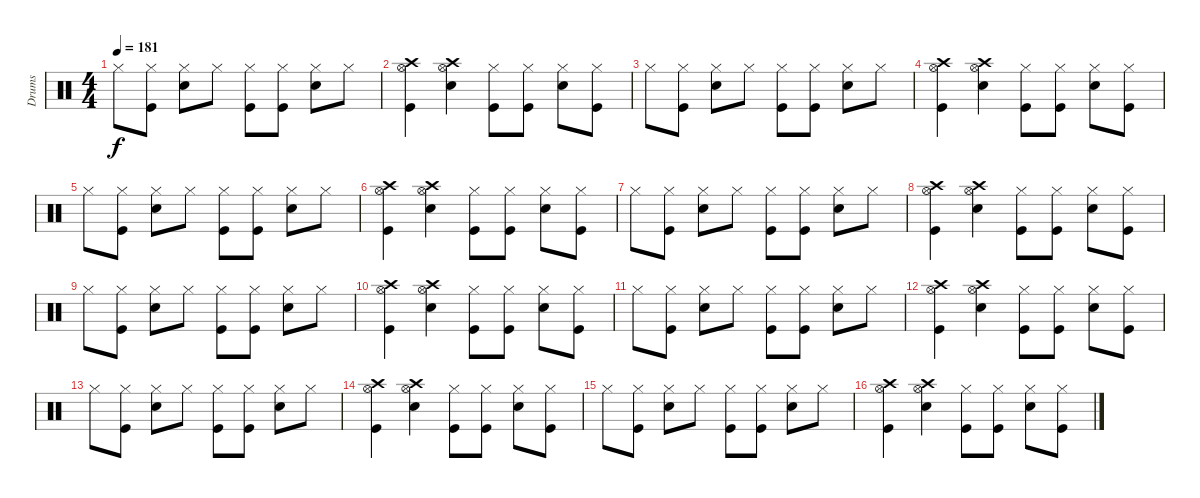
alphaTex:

\track ("Drums" "Drums") {instrument percussion}
\staff {score}
\articulation defaults
\ts (4 4)
\tempo 181
\clef neutral
\ks c "Hi-Hat (closed)".8{dy f}
("Hi-Hat (closed)" "Kick (hit)").8 ("Hi-Hat (closed)" "Snare (hit) 2").8 "Hi-Hat (closed)".8 ("Hi-Hat (closed)" "Kick (hit)").8 ("Hi-Hat (closed)" "Kick (hit)").8 ("Hi-Hat (closed)" "Snare (hit) 2").8 "Hi-Hat (closed)".8 |
("Crash high (hit)" "Hi-Hat (open)" "Kick (hit)").4 ("Crash high (hit)" "Hi-Hat (open)" "Snare (hit) 2").4 ("Hi-Hat (closed)" "Kick (hit)").8 ("Hi-Hat (closed)" "Kick (hit)").8 ("Hi-Hat (closed)" "Snare (hit) 2").8 ("Hi-Hat (closed)" "Kick (hit)").8 |
"Hi-Hat (closed)".8 ("Hi-Hat (closed)" "Kick (hit)").8 ("Hi-Hat (closed)" "Snare (hit) 2").8 "Hi-Hat (closed)".8 ("Hi-Hat (closed)" "Kick (hit)").8 ("Hi-Hat (closed)" "Kick (hit)").8 ("Hi-Hat (closed)" "Snare (hit) 2").8 "Hi-Hat (closed)".8 |
("Crash high (hit)" "Hi-Hat (open)" "Kick (hit)").4 ("Crash high (hit)" "Hi-Hat (open)" "Snare (hit) 2").4 ("Hi-Hat (closed)" "Kick (hit)").8 ("Hi-Hat (closed)" "Kick (hit)").8 ("Hi-Hat (closed)" "Snare (hit) 2").8 ("Hi-Hat (closed)" "Kick (hit)").8 |
"Hi-Hat (closed)".8 ("Hi-Hat (closed)" "Kick (hit)").8 ("Hi-Hat (closed)" "Snare (hit) 2").8 "Hi-Hat (closed)".8 ("Hi-Hat (closed)" "Kick (hit)").8 ("Hi-Hat (closed)" "Kick (hit)").8 ("Hi-Hat (closed)" "Snare (hit) 2").8 "Hi-Hat (closed)".8 |
("Crash high (hit)" "Hi-Hat (open)" "Kick (hit)").4 ("Crash high (hit)" "Hi-Hat (open)" "Snare (hit) 2").4 ("Hi-Hat (closed)" "Kick (hit)").8 ("Hi-Hat (closed)" "Kick (hit)").8 ("Hi-Hat (closed)" "Snare (hit) 2").8 ("Hi-Hat (closed)" "Kick (hit)").8 |
"Hi-Hat (closed)".8 ("Hi-Hat (closed)" "Kick (hit)").8 ("Hi-Hat (closed)" "Snare (hit) 2").8 "Hi-Hat (closed)".8 ("Hi-Hat (closed)" "Kick (hit)").8 ("Hi-Hat (closed)" "Kick (hit)").8 ("Hi-Hat (closed)" "Snare (hit) 2").8 "Hi-Hat (closed)".8 |
("Crash high (hit)" "Hi-Hat (open)" "Kick (hit)").4 ("Crash high (hit)" "Hi-Hat (open)" "Snare (hit) 2").4 ("Hi-Hat (closed)" "Kick (hit)").8 ("Hi-Hat (closed)" "Kick (hit)").8 ("Hi-Hat (closed)" "Snare (hit) 2").8 ("Hi-Hat (closed)" "Kick (hit)").8 |
"Hi-Hat (closed)".8 ("Hi-Hat (closed)" "Kick (hit)").8 ("Hi-Hat (closed)" "Snare (hit) 2").8 "Hi-Hat (closed)".8 ("Hi-Hat (closed)" "Kick (hit)").8 ("Hi-Hat (closed)" "Kick (hit)").8 ("Hi-Hat (closed)" "Snare (hit) 2").8 "Hi-Hat (closed)".8 |
("Crash high (hit)" "Hi-Hat (open)" "Kick (hit)").4 ("Crash high (hit)" "Hi-Hat (open)" "Snare (hit) 2").4 ("Hi-Hat (closed)" "Kick (hit)").8 ("Hi-Hat (closed)" "Kick (hit)").8 ("Hi-Hat (closed)" "Snare (hit) 2").8 ("Hi-Hat (closed)" "Kick (hit)").8 |
"Hi-Hat (closed)".8 ("Hi-Hat (closed)" "Kick (hit)").8 ("Hi-Hat (closed)" "Snare (hit) 2").8 "Hi-Hat (closed)".8 ("Hi-Hat (closed)" "Kick (hit)").8 ("Hi-Hat (closed)" "Kick (hit)").8 ("Hi-Hat (closed)" "Snare (hit) 2").8 "Hi-Hat (closed)".8 |
("Crash high (hit)" "Hi-Hat (open)" "Kick (hit)").4 ("Crash high (hit)" "Hi-Hat (open)" "Snare (hit) 2").4 ("Hi-Hat (closed)" "Kick (hit)").8 ("Hi-Hat (closed)" "Kick (hit)").8 ("Hi-Hat (closed)" "Snare (hit) 2").8 ("Hi-Hat (closed)" "Kick (hit)").8 |
"Hi-Hat (closed)".8 ("Hi-Hat (closed)" "Kick (hit)").8 ("Hi-Hat (closed)" "Snare (hit) 2").8 "Hi-Hat (closed)".8 ("Hi-Hat (closed)" "Kick (hit)").8 ("Hi-Hat (closed)" "Kick (hit)").8 ("Hi-Hat (closed)" "Snare (hit) 2").8 "Hi-Hat (closed)".8 |
("Crash high (hit)" "Hi-Hat (open)" "Kick (hit)").4 ("Crash high (hit)" "Hi-Hat (open)" "Snare (hit) 2").4 ("Hi-Hat (closed)" "Kick (hit)").8 ("Hi-Hat (closed)" "Kick (hit)").8 ("Hi-Hat (closed)" "Snare (hit) 2").8 ("Hi-Hat (closed)" "Kick (hit)").8 |
"Hi-Hat (closed)".8 ("Hi-Hat (closed)" "Kick (hit)").8 ("Hi-Hat (closed)" "Snare (hit) 2").8 "Hi-Hat (closed)".8 ("Hi-Hat (closed)" "Kick (hit)").8 ("Hi-Hat (closed)" "Kick (hit)").8 ("Hi-Hat (closed)" "Snare (hit) 2").8 "Hi-Hat (closed)".8 |
("Crash high (hit)" "Hi-Hat (open)" "Kick (hit)").4 ("Crash high (hit)" "Hi-Hat (open)" "Snare (hit) 2").4 ("Hi-Hat (closed)" "Kick (hit)").8 ("Hi-Hat (closed)" "Kick (hit)").8 ("Hi-Hat (closed)" "Snare (hit) 2").8 ("Hi-Hat (closed)" "Kick (hit)").8
